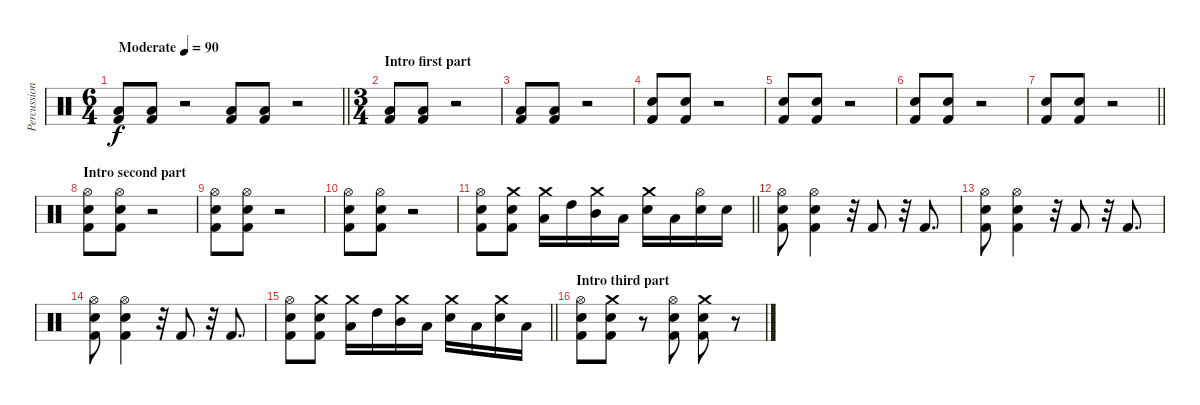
\track ("Percussion" "Percussion") {instrument percussion}
\staff {score}
\articulation defaults
\ts (6 4)
\tempo (90 "Moderate")
\clef neutral
\barLineRight lightlight
\ks c
("Low Tom (hit)" "Kick (hit) 2").8{dy f} ("Low Tom (hit)" "Kick (hit) 2").8 r.2 ("Low Tom (hit)" "Kick (hit) 2").8 ("Low Tom (hit)" "Kick (hit) 2").8 r.2 |
\ts (3 4)
\section ("" "Intro first part")
("Low Tom (hit)" "Kick (hit) 2").8 ("Low Tom (hit)" "Kick (hit) 2").8 r.2 |
("Low Tom (hit)" "Kick (hit) 2").8 ("Low Tom (hit)" "Kick (hit) 2").8 r.2 |
("Snare (hit) 2" "Kick (hit) 2").8 ("Snare (hit) 2" "Kick (hit) 2").8 r.2 |
("Snare (hit) 2" "Kick (hit) 2").8 ("Snare (hit) 2" "Kick (hit) 2").8 r.2 |
("Snare (hit) 2" "Kick (hit) 2").8 ("Snare (hit) 2" "Kick (hit) 2").8 r.2 |
\barLineRight lightlight
("Snare (hit) 2" "Kick (hit) 2").8 ("Snare (hit) 2" "Kick (hit) 2").8 r.2 |
\section ("" "Intro second part")
("Hi-Hat (open)" "Snare (hit) 2" "Kick (hit) 2").8 ("Hi-Hat (open)" "Snare (hit) 2" "Kick (hit) 2").8 r.2 |
("Hi-Hat (open)" "Snare (hit) 2" "Kick (hit) 2").8 ("Hi-Hat (open)" "Snare (hit) 2" "Kick (hit) 2").8 r.2 |
("Hi-Hat (open)" "Snare (hit) 2" "Kick (hit) 2").8 ("Hi-Hat (open)" "Snare (hit) 2" "Kick (hit) 2").8 r.2 |
\barLineRight lightlight
("Hi-Hat (open)" "Snare (hit) 2" "Kick (hit) 2").8 ("Crash medium (hit)" "Snare (hit) 2" "Kick (hit) 2").8 ("Crash medium (hit)" "Low Tom (hit)").16 "High Tom (hit)".16 ("Crash medium (hit)" "Mid Tom (hit)").16 "Low Tom (hit)".16 ("Crash medium (hit)" "Electric Snare (hit)").16 "Low Tom (hit)".16 ("Hi-Hat (open)" "Snare (hit) 2").16 "Snare (hit) 2".16 |
("Hi-Hat (open)" "Snare (hit) 2" "Kick (hit) 2").8 ("Hi-Hat (open)" "Snare (hit) 2" "Kick (hit) 2").4 r.32 "Kick (hit) 2".8 r.32 "Kick (hit) 2".8{d} |
("Hi-Hat (open)" "Snare (hit) 2" "Kick (hit) 2").8 ("Hi-Hat (open)" "Snare (hit) 2" "Kick (hit) 2").4 r.32 "Kick (hit) 2".8 r.32 "Kick (hit) 2".8{d} |
("Hi-Hat (open)" "Snare (hit) 2" "Kick (hit) 2").8 ("Hi-Hat (open)" "Snare (hit) 2" "Kick (hit) 2").4 r.32 "Kick (hit) 2".8 r.32 "Kick (hit) 2".8{d} |
\barLineRight lightlight
("Hi-Hat (open)" "Snare (hit) 2" "Kick (hit) 2").8 ("Crash medium (hit)" "Snare (hit) 2" "Kick (hit) 2").8 ("Crash medium (hit)" "Low Tom (hit)").16 "High Tom (hit)".16 ("Crash medium (hit)" "Mid Tom (hit)").16 "Low Tom (hit)".16 ("Crash medium (hit)" "Electric Snare (hit)").16 "Low Tom (hit)".16 ("Crash medium (hit)" "Snare (hit) 2").16 "Low Tom (hit)".16 |
\section ("" "Intro third part")
("Hi-Hat (open)" "Snare (hit) 2" "Kick (hit) 2").8 ("Crash medium (hit)" "Snare (hit) 2" "Kick (hit) 2").8 r.8 ("Hi-Hat (open)" "Snare (hit) 2" "Kick (hit) 2").8 ("Crash medium (hit)" "Snare (hit) 2" "Kick (hit) 2").8 r.8
